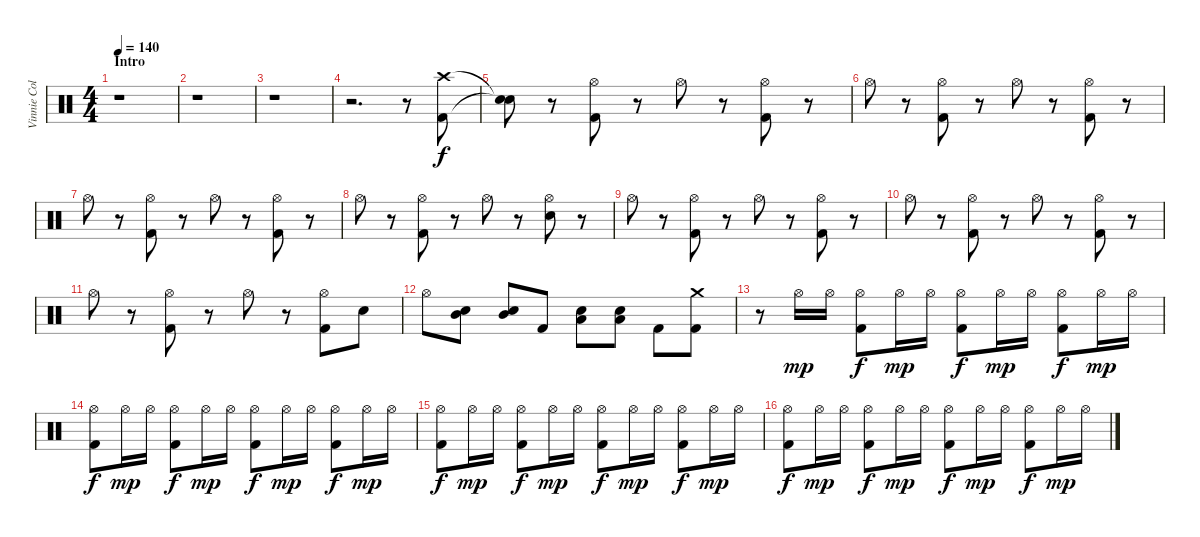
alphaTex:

\track ("Vinnie Colaiuta" "Vinnie Col") {instrument percussion}
\staff {score}
\articulation defaults
\ts (4 4)
\section ("" "Intro")
\tempo 140
\clef neutral
\ks c
r.1{dy f} |
r.1 |
r.1 |
r.2{d} r.8 ("Crash high (hit)" "Kick (hit) 2").8 |
("Snare (hit)"{t} "Snare (hit)"{t}).8 r.8 ("Hi-Hat (open)" "Kick (hit) 2").8 r.8 "Hi-Hat (open)".8 r.8 ("Hi-Hat (open)" "Kick (hit) 2").8 r.8 |
"Hi-Hat (open)".8 r.8 ("Hi-Hat (open)" "Kick (hit) 2").8 r.8 "Hi-Hat (open)".8 r.8 ("Hi-Hat (open)" "Kick (hit) 2").8 r.8 |
"Hi-Hat (open)".8 r.8 ("Hi-Hat (open)" "Kick (hit) 2").8 r.8 "Hi-Hat (open)".8 r.8 ("Hi-Hat (open)" "Kick (hit) 2").8 r.8 |
"Hi-Hat (open)".8 r.8 ("Hi-Hat (open)" "Kick (hit) 2").8 r.8 "Hi-Hat (open)".8 r.8 ("Hi-Hat (open)" "Snare (hit) 2").8 r.8 |
"Hi-Hat (open)".8 r.8 ("Hi-Hat (open)" "Kick (hit) 2").8 r.8 "Hi-Hat (open)".8 r.8 ("Hi-Hat (open)" "Kick (hit) 2").8 r.8 |
"Hi-Hat (open)".8 r.8 ("Hi-Hat (open)" "Kick (hit) 2").8 r.8 "Hi-Hat (open)".8 r.8 ("Hi-Hat (open)" "Kick (hit) 2").8 r.8 |
"Hi-Hat (open)".8 r.8 ("Hi-Hat (open)" "Kick (hit) 2").8 r.8 "Hi-Hat (open)".8 r.8 ("Hi-Hat (open)" "Kick (hit) 2").8 "Snare (hit) 2".8 |
"Hi-Hat (open)".8 ("Mid Tom (hit)" "Snare (hit) 2").8 ("Mid Tom (hit)" "Snare (hit) 2").8 "Kick (hit) 2".8 ("Low Tom (hit)" "Snare (hit) 2").8 ("Low Tom (hit)" "Snare (hit) 2").8 "Kick (hit) 2".8 ("Crash medium (hit)" "Kick (hit) 2").8 |
r.8 "Hi-Hat (open)".16{dy mp} "Hi-Hat (open)".16 ("Hi-Hat (open)" "Kick (hit) 2").8{dy f} "Hi-Hat (open)".16{dy mp} "Hi-Hat (open)".16 ("Hi-Hat (open)" "Kick (hit) 2").8{dy f} "Hi-Hat (open)".16{dy mp} "Hi-Hat (open)".16 ("Hi-Hat (open)" "Kick (hit) 2").8{dy f} "Hi-Hat (open)".16{dy mp} "Hi-Hat (open)".16 |
("Hi-Hat (open)" "Kick (hit) 2").8{dy f} "Hi-Hat (open)".16{dy mp} "Hi-Hat (open)".16 ("Hi-Hat (open)" "Kick (hit) 2").8{dy f} "Hi-Hat (open)".16{dy mp} "Hi-Hat (open)".16 ("Hi-Hat (open)" "Kick (hit) 2").8{dy f} "Hi-Hat (open)".16{dy mp} "Hi-Hat (open)".16 ("Hi-Hat (open)" "Kick (hit) 2").8{dy f} "Hi-Hat (open)".16{dy mp} "Hi-Hat (open)".16 |
("Hi-Hat (open)" "Kick (hit) 2").8{dy f} "Hi-Hat (open)".16{dy mp} "Hi-Hat (open)".16 ("Hi-Hat (open)" "Kick (hit) 2").8{dy f} "Hi-Hat (open)".16{dy mp} "Hi-Hat (open)".16 ("Hi-Hat (open)" "Kick (hit) 2").8{dy f} "Hi-Hat (open)".16{dy mp} "Hi-Hat (open)".16 ("Hi-Hat (open)" "Kick (hit) 2").8{dy f} "Hi-Hat (open)".16{dy mp} "Hi-Hat (open)".16 |
("Hi-Hat (open)" "Kick (hit) 2").8{dy f} "Hi-Hat (open)".16{dy mp} "Hi-Hat (open)".16 ("Hi-Hat (open)" "Kick (hit) 2").8{dy f} "Hi-Hat (open)".16{dy mp} "Hi-Hat (open)".16 ("Hi-Hat (open)" "Kick (hit) 2").8{dy f} "Hi-Hat (open)".16{dy mp} "Hi-Hat (open)".16 ("Hi-Hat (open)" "Kick (hit) 2").8{dy f} "Hi-Hat (open)".16{dy mp} "Hi-Hat (open)".16
